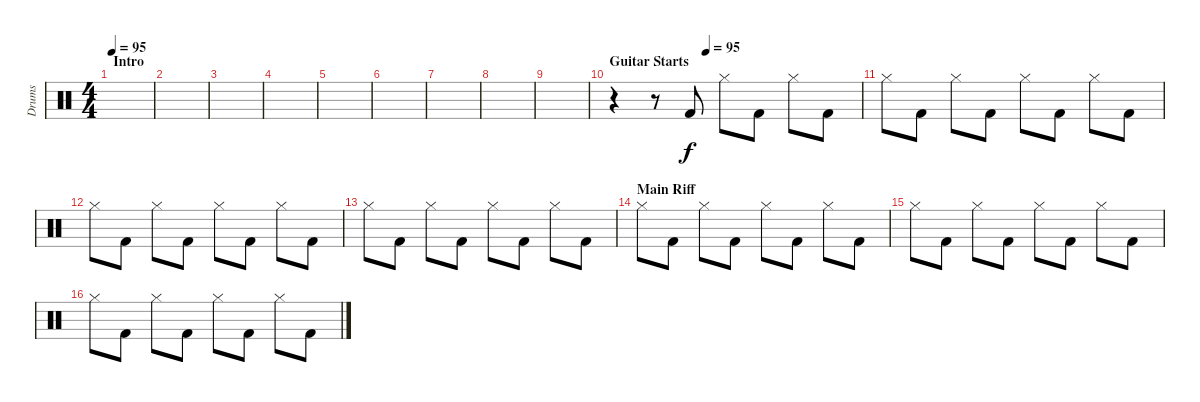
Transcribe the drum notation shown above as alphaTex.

\track ("Drums" "Drums") {instrument percussion}
\staff {score}
\articulation defaults
\ts (4 4)
\section ("" "Intro")
\tempo 95
\tempo 80
\tempo 95
\clef neutral
\ks c
|
|
|
|
|
|
|
|
|
\section ("" "Guitar Starts")
\tempo (95 0.375)
r.4 r.8 "Kick (hit) 2".8 "Hi-Hat (closed)".8 "Kick (hit) 2".8 "Hi-Hat (closed)".8 "Kick (hit) 2".8 |
"Hi-Hat (closed)".8 "Kick (hit) 2".8 "Hi-Hat (closed)".8 "Kick (hit) 2".8 "Hi-Hat (closed)".8 "Kick (hit) 2".8 "Hi-Hat (closed)".8 "Kick (hit) 2".8 |
"Hi-Hat (closed)".8 "Kick (hit) 2".8 "Hi-Hat (closed)".8 "Kick (hit) 2".8 "Hi-Hat (closed)".8 "Kick (hit) 2".8 "Hi-Hat (closed)".8 "Kick (hit) 2".8 |
"Hi-Hat (closed)".8 "Kick (hit) 2".8 "Hi-Hat (closed)".8 "Kick (hit) 2".8 "Hi-Hat (closed)".8 "Kick (hit) 2".8 "Hi-Hat (closed)".8 "Kick (hit) 2".8 |
\section ("" "Main Riff")
"Hi-Hat (closed)".8 "Kick (hit) 2".8 "Hi-Hat (closed)".8 "Kick (hit) 2".8 "Hi-Hat (closed)".8 "Kick (hit) 2".8 "Hi-Hat (closed)".8 "Kick (hit) 2".8 |
"Hi-Hat (closed)".8 "Kick (hit) 2".8 "Hi-Hat (closed)".8 "Kick (hit) 2".8 "Hi-Hat (closed)".8 "Kick (hit) 2".8 "Hi-Hat (closed)".8 "Kick (hit) 2".8 |
"Hi-Hat (closed)".8 "Kick (hit) 2".8 "Hi-Hat (closed)".8 "Kick (hit) 2".8 "Hi-Hat (closed)".8 "Kick (hit) 2".8 "Hi-Hat (closed)".8 "Kick (hit) 2".8
